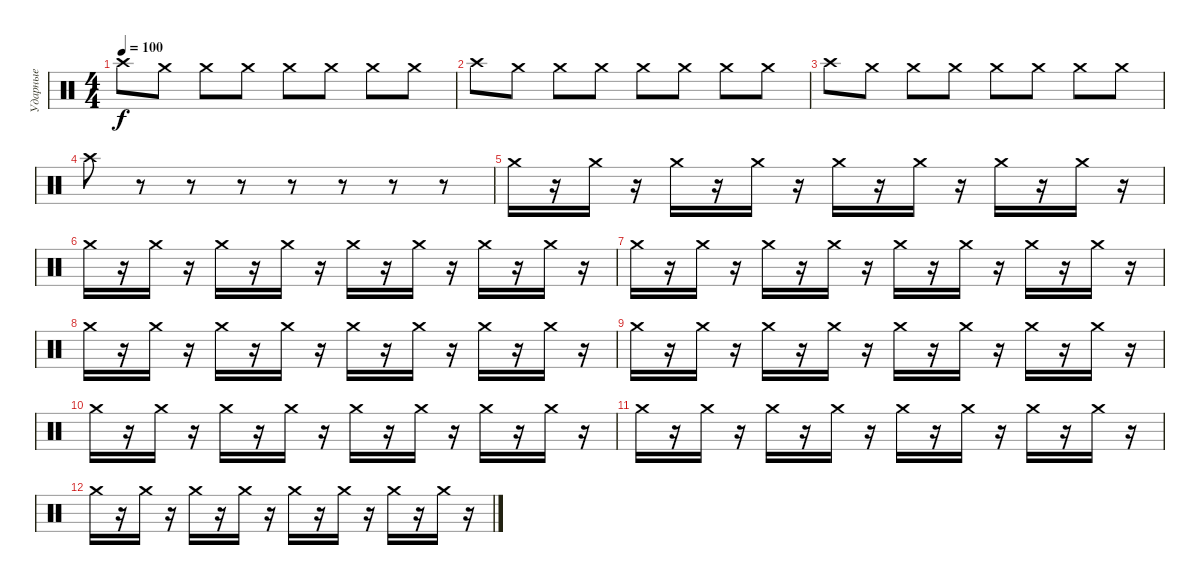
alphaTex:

\track ("Ударные" "Ударные") {instrument percussion}
\staff {score}
\articulation defaults
\ts (4 4)
\tempo 100
\clef neutral
\ks c "Crash high (hit)".8{dy f} "Crash medium (hit)".8 "Crash medium (hit)".8 "Crash medium (hit)".8 "Crash medium (hit)".8 "Crash medium (hit)".8 "Crash medium (hit)".8 "Crash medium (hit)".8
|
"Crash high (hit)".8 "Crash medium (hit)".8 "Crash medium (hit)".8 "Crash medium (hit)".8 "Crash medium (hit)".8 "Crash medium (hit)".8 "Crash medium (hit)".8 "Crash medium (hit)".8 |
"Crash high (hit)".8 "Crash medium (hit)".8 "Crash medium (hit)".8 "Crash medium (hit)".8 "Crash medium (hit)".8 "Crash medium (hit)".8 "Crash medium (hit)".8 "Crash medium (hit)".8 |
"Crash high (hit)".8 r.8 r.8 r.8 r.8 r.8 r.8 r.8 |
"Crash medium (hit)".16 r.16 "Crash medium (hit)".16 r.16 "Crash medium (hit)".16 r.16 "Crash medium (hit)".16 r.16 "Crash medium (hit)".16 r.16 "Crash medium (hit)".16 r.16 "Crash medium (hit)".16 r.16 "Crash medium (hit)".16 r.16 |
"Crash medium (hit)".16 r.16 "Crash medium (hit)".16 r.16 "Crash medium (hit)".16 r.16 "Crash medium (hit)".16 r.16 "Crash medium (hit)".16 r.16 "Crash medium (hit)".16 r.16 "Crash medium (hit)".16 r.16 "Crash medium (hit)".16 r.16 |
"Crash medium (hit)".16 r.16 "Crash medium (hit)".16 r.16 "Crash medium (hit)".16 r.16 "Crash medium (hit)".16 r.16 "Crash medium (hit)".16 r.16 "Crash medium (hit)".16 r.16 "Crash medium (hit)".16 r.16 "Crash medium (hit)".16 r.16 |
"Crash medium (hit)".16 r.16 "Crash medium (hit)".16 r.16 "Crash medium (hit)".16 r.16 "Crash medium (hit)".16 r.16 "Crash medium (hit)".16 r.16 "Crash medium (hit)".16 r.16 "Crash medium (hit)".16 r.16 "Crash medium (hit)".16 r.16 |
"Crash medium (hit)".16 r.16 "Crash medium (hit)".16 r.16 "Crash medium (hit)".16 r.16 "Crash medium (hit)".16 r.16 "Crash medium (hit)".16 r.16 "Crash medium (hit)".16 r.16 "Crash medium (hit)".16 r.16 "Crash medium (hit)".16 r.16 |
"Crash medium (hit)".16 r.16 "Crash medium (hit)".16 r.16 "Crash medium (hit)".16 r.16 "Crash medium (hit)".16 r.16 "Crash medium (hit)".16 r.16 "Crash medium (hit)".16 r.16 "Crash medium (hit)".16 r.16 "Crash medium (hit)".16 r.16 |
"Crash medium (hit)".16 r.16 "Crash medium (hit)".16 r.16 "Crash medium (hit)".16 r.16 "Crash medium (hit)".16 r.16 "Crash medium (hit)".16 r.16 "Crash medium (hit)".16 r.16 "Crash medium (hit)".16 r.16 "Crash medium (hit)".16 r.16 |
"Crash medium (hit)".16 r.16 "Crash medium (hit)".16 r.16 "Crash medium (hit)".16 r.16 "Crash medium (hit)".16 r.16 "Crash medium (hit)".16 r.16 "Crash medium (hit)".16 r.16 "Crash medium (hit)".16 r.16 "Crash medium (hit)".16 r.16
